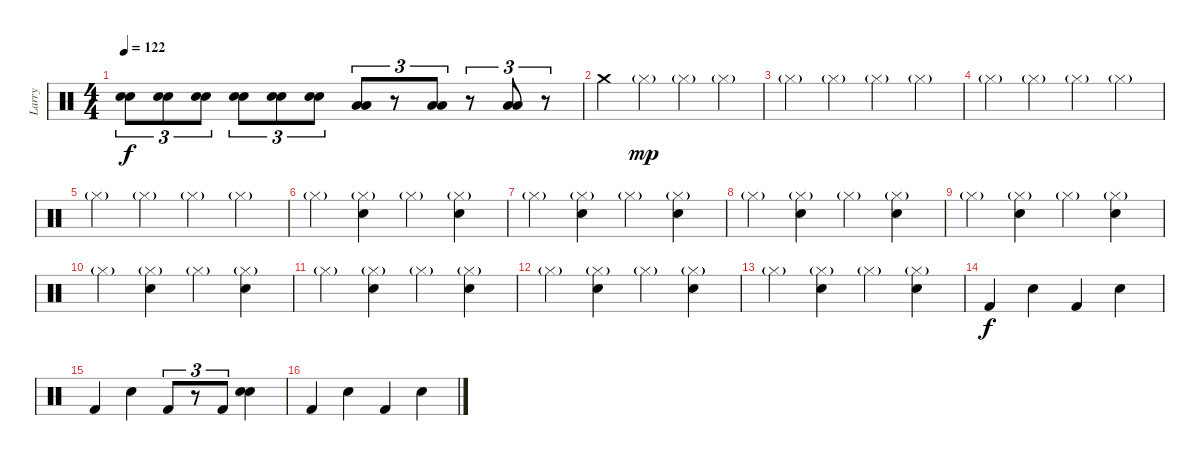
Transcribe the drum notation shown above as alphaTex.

\track ("Larry" "Larry") {instrument percussion}
\staff {score}
\articulation defaults
\ts (4 4)
\tempo 122
\clef neutral
\ks c
("Electric Snare (hit)" "Snare (hit) 2").8{tu (3 2) dy f} ("Electric Snare (hit)" "Snare (hit) 2").8{tu (3 2)} ("Electric Snare (hit)" "Snare (hit) 2").8{tu (3 2)} ("Electric Snare (hit)" "Snare (hit) 2").8{tu (3 2)} ("Electric Snare (hit)" "Snare (hit) 2").8{tu (3 2)} ("Electric Snare (hit)" "Snare (hit) 2").8{tu (3 2)} ("Low Tom (hit)" "Low Tom (hit)").8{tu (3 2)} r.8{tu (3 2)} ("Low Tom (hit)" "Low Tom (hit)").8{tu (3 2)} r.8{tu (3 2)} ("Low Tom (hit)" "Low Tom (hit)").8{tu (3 2)} r.8{tu (3 2)} |
"Crash medium (hit)".4 "Hi-Hat (closed)"{g}.4{dy mp} "Hi-Hat (closed)"{g}.4 "Hi-Hat (closed)"{g}.4 |
"Hi-Hat (closed)"{g}.4 "Hi-Hat (closed)"{g}.4 "Hi-Hat (closed)"{g}.4 "Hi-Hat (closed)"{g}.4 |
"Hi-Hat (closed)"{g}.4 "Hi-Hat (closed)"{g}.4 "Hi-Hat (closed)"{g}.4 "Hi-Hat (closed)"{g}.4 |
"Hi-Hat (closed)"{g}.4 "Hi-Hat (closed)"{g}.4 "Hi-Hat (closed)"{g}.4 "Hi-Hat (closed)"{g}.4 |
"Hi-Hat (closed)"{g}.4 ("Hand Clap (hit)" "Hi-Hat (closed)"{g}).4 "Hi-Hat (closed)"{g}.4 ("Hand Clap (hit)" "Hi-Hat (closed)"{g}).4 |
"Hi-Hat (closed)"{g}.4 ("Hand Clap (hit)" "Hi-Hat (closed)"{g}).4 "Hi-Hat (closed)"{g}.4 ("Hand Clap (hit)" "Hi-Hat (closed)"{g}).4 |
"Hi-Hat (closed)"{g}.4 ("Hand Clap (hit)" "Hi-Hat (closed)"{g}).4 "Hi-Hat (closed)"{g}.4 ("Hand Clap (hit)" "Hi-Hat (closed)"{g}).4 |
"Hi-Hat (closed)"{g}.4 ("Hand Clap (hit)" "Hi-Hat (closed)"{g}).4 "Hi-Hat (closed)"{g}.4 ("Hand Clap (hit)" "Hi-Hat (closed)"{g}).4 |
"Hi-Hat (closed)"{g}.4 ("Hand Clap (hit)" "Hi-Hat (closed)"{g}).4 "Hi-Hat (closed)"{g}.4 ("Hand Clap (hit)" "Hi-Hat (closed)"{g}).4 |
"Hi-Hat (closed)"{g}.4 ("Hand Clap (hit)" "Hi-Hat (closed)"{g}).4 "Hi-Hat (closed)"{g}.4 ("Hand Clap (hit)" "Hi-Hat (closed)"{g}).4 |
"Hi-Hat (closed)"{g}.4 ("Hand Clap (hit)" "Hi-Hat (closed)"{g}).4 "Hi-Hat (closed)"{g}.4 ("Hand Clap (hit)" "Hi-Hat (closed)"{g}).4 |
"Hi-Hat (closed)"{g}.4 ("Hand Clap (hit)" "Hi-Hat (closed)"{g}).4 "Hi-Hat (closed)"{g}.4 ("Hand Clap (hit)" "Hi-Hat (closed)"{g}).4 |
"Kick (hit) 2".4{dy f} "Snare (hit) 2".4 "Kick (hit) 2".4 "Snare (hit) 2".4 |
"Kick (hit) 2".4 "Snare (hit) 2".4 "Kick (hit) 2".8{tu (3 2)} r.8{tu (3 2)} "Kick (hit) 2".8{tu (3 2)} ("Hand Clap (hit)" "Snare (hit) 2").4 |
"Kick (hit) 2".4 "Snare (hit) 2".4 "Kick (hit) 2".4 "Snare (hit) 2".4
